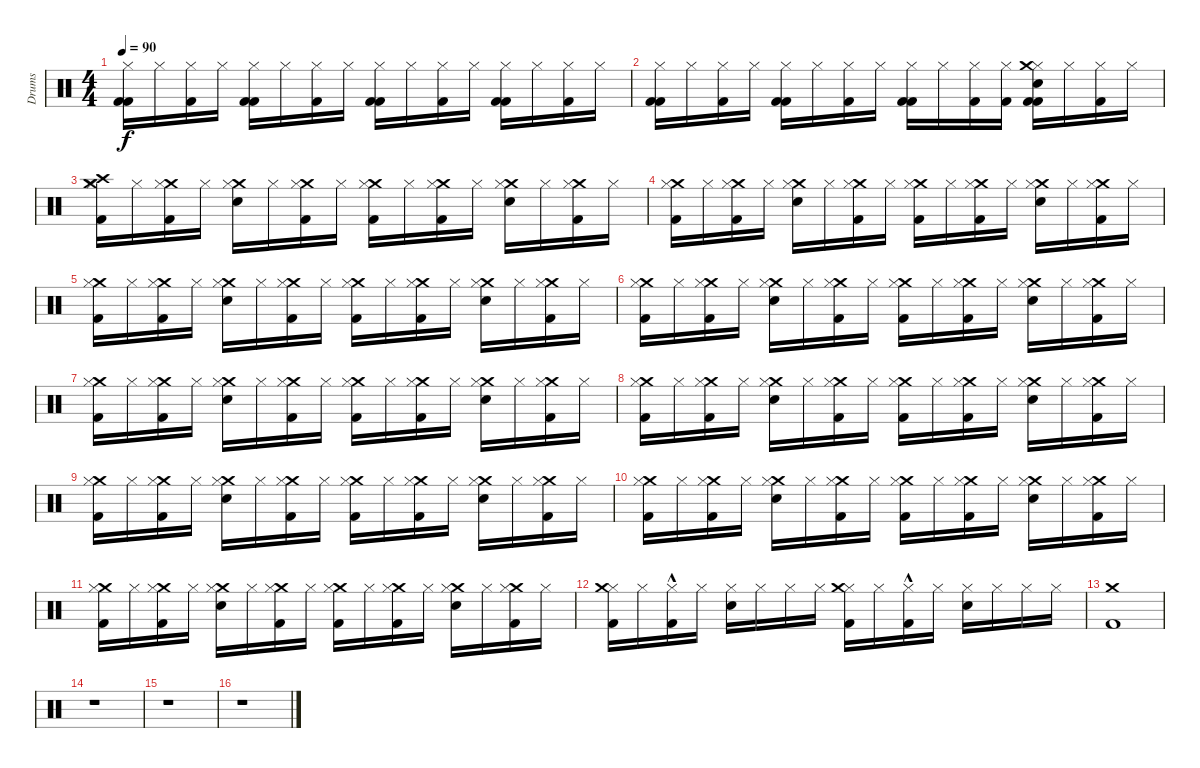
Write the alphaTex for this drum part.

\track ("Drums" "Drums") {instrument percussion}
\staff {score}
\articulation defaults
\ts (4 4)
\tempo 90
\clef neutral
\ks c
("Kick (hit) 2" "Kick (hit) 2" "Hi-Hat (closed)").16{dy f} "Hi-Hat (closed)".16 ("Kick (hit) 2" "Hi-Hat (closed)").16 "Hi-Hat (closed)".16 ("Kick (hit) 2" "Kick (hit) 2" "Hi-Hat (closed)").16 "Hi-Hat (closed)".16 ("Kick (hit) 2" "Hi-Hat (closed)").16 "Hi-Hat (closed)".16 ("Kick (hit) 2" "Kick (hit) 2" "Hi-Hat (closed)").16 "Hi-Hat (closed)".16 ("Kick (hit) 2" "Hi-Hat (closed)").16 "Hi-Hat (closed)".16 ("Kick (hit) 2" "Kick (hit) 2" "Hi-Hat (closed)").16 "Hi-Hat (closed)".16 ("Kick (hit) 2" "Hi-Hat (closed)").16 "Hi-Hat (closed)".16 |
("Kick (hit) 2" "Kick (hit) 2" "Hi-Hat (closed)").16 "Hi-Hat (closed)".16 ("Kick (hit) 2" "Hi-Hat (closed)").16 "Hi-Hat (closed)".16 ("Kick (hit) 2" "Kick (hit) 2" "Hi-Hat (closed)").16 "Hi-Hat (closed)".16 ("Kick (hit) 2" "Hi-Hat (closed)").16 "Hi-Hat (closed)".16 ("Kick (hit) 2" "Kick (hit) 2" "Hi-Hat (closed)").16 "Hi-Hat (closed)".16 ("Kick (hit) 2" "Hi-Hat (closed)").16 ("Hi-Hat (closed)" "Kick (hit) 2").16 ("Kick (hit) 2" "Hi-Hat (closed)" "Kick (hit) 2" "Snare (hit) 2" "Crash medium (hit)").16 "Hi-Hat (closed)".16 ("Hi-Hat (closed)" "Kick (hit) 2").16 "Hi-Hat (closed)".16 |
("Crash medium (hit)" "Kick (hit) 2" "Crash high (hit)" "Hi-Hat (closed)").16 "Hi-Hat (closed)".16 ("Crash medium (hit)" "Kick (hit) 2" "Hi-Hat (closed)").16 "Hi-Hat (closed)".16 ("Crash medium (hit)" "Snare (hit) 2" "Hi-Hat (closed)").16 "Hi-Hat (closed)".16 ("Crash medium (hit)" "Kick (hit) 2" "Hi-Hat (closed)").16 "Hi-Hat (closed)".16 ("Crash medium (hit)" "Kick (hit) 2" "Hi-Hat (closed)").16 "Hi-Hat (closed)".16 ("Crash medium (hit)" "Kick (hit) 2" "Hi-Hat (closed)").16 "Hi-Hat (closed)".16 ("Crash medium (hit)" "Snare (hit) 2" "Hi-Hat (closed)").16 "Hi-Hat (closed)".16 ("Crash medium (hit)" "Kick (hit) 2" "Hi-Hat (closed)").16 "Hi-Hat (closed)".16 |
("Crash medium (hit)" "Kick (hit) 2" "Hi-Hat (closed)").16 "Hi-Hat (closed)".16 ("Crash medium (hit)" "Kick (hit) 2" "Hi-Hat (closed)").16 "Hi-Hat (closed)".16 ("Crash medium (hit)" "Snare (hit) 2" "Hi-Hat (closed)").16 "Hi-Hat (closed)".16 ("Crash medium (hit)" "Kick (hit) 2" "Hi-Hat (closed)").16 "Hi-Hat (closed)".16 ("Crash medium (hit)" "Kick (hit) 2" "Hi-Hat (closed)").16 "Hi-Hat (closed)".16 ("Crash medium (hit)" "Kick (hit) 2" "Hi-Hat (closed)").16 "Hi-Hat (closed)".16 ("Crash medium (hit)" "Snare (hit) 2" "Hi-Hat (closed)").16 "Hi-Hat (closed)".16 ("Crash medium (hit)" "Kick (hit) 2" "Hi-Hat (closed)").16 "Hi-Hat (closed)".16 |
("Crash medium (hit)" "Kick (hit) 2" "Hi-Hat (closed)").16 "Hi-Hat (closed)".16 ("Crash medium (hit)" "Kick (hit) 2" "Hi-Hat (closed)").16 "Hi-Hat (closed)".16 ("Crash medium (hit)" "Snare (hit) 2" "Hi-Hat (closed)").16 "Hi-Hat (closed)".16 ("Crash medium (hit)" "Kick (hit) 2" "Hi-Hat (closed)").16 "Hi-Hat (closed)".16 ("Crash medium (hit)" "Kick (hit) 2" "Hi-Hat (closed)").16 "Hi-Hat (closed)".16 ("Crash medium (hit)" "Kick (hit) 2" "Hi-Hat (closed)").16 "Hi-Hat (closed)".16 ("Crash medium (hit)" "Snare (hit) 2" "Hi-Hat (closed)").16 "Hi-Hat (closed)".16 ("Crash medium (hit)" "Kick (hit) 2" "Hi-Hat (closed)").16 "Hi-Hat (closed)".16 |
("Crash medium (hit)" "Kick (hit) 2" "Hi-Hat (closed)").16 "Hi-Hat (closed)".16 ("Crash medium (hit)" "Kick (hit) 2" "Hi-Hat (closed)").16 "Hi-Hat (closed)".16 ("Crash medium (hit)" "Snare (hit) 2" "Hi-Hat (closed)").16 "Hi-Hat (closed)".16 ("Crash medium (hit)" "Kick (hit) 2" "Hi-Hat (closed)").16 "Hi-Hat (closed)".16 ("Crash medium (hit)" "Kick (hit) 2" "Hi-Hat (closed)").16 "Hi-Hat (closed)".16 ("Crash medium (hit)" "Kick (hit) 2" "Hi-Hat (closed)").16 "Hi-Hat (closed)".16 ("Crash medium (hit)" "Snare (hit) 2" "Hi-Hat (closed)").16 "Hi-Hat (closed)".16 ("Crash medium (hit)" "Kick (hit) 2" "Hi-Hat (closed)").16 "Hi-Hat (closed)".16 |
("Crash medium (hit)" "Kick (hit) 2" "Hi-Hat (closed)").16 "Hi-Hat (closed)".16 ("Crash medium (hit)" "Kick (hit) 2" "Hi-Hat (closed)").16 "Hi-Hat (closed)".16 ("Crash medium (hit)" "Snare (hit) 2" "Hi-Hat (closed)").16 "Hi-Hat (closed)".16 ("Crash medium (hit)" "Kick (hit) 2" "Hi-Hat (closed)").16 "Hi-Hat (closed)".16 ("Crash medium (hit)" "Kick (hit) 2" "Hi-Hat (closed)").16 "Hi-Hat (closed)".16 ("Crash medium (hit)" "Kick (hit) 2" "Hi-Hat (closed)").16 "Hi-Hat (closed)".16 ("Crash medium (hit)" "Snare (hit) 2" "Hi-Hat (closed)").16 "Hi-Hat (closed)".16 ("Crash medium (hit)" "Kick (hit) 2" "Hi-Hat (closed)").16 "Hi-Hat (closed)".16 |
("Crash medium (hit)" "Kick (hit) 2" "Hi-Hat (closed)").16 "Hi-Hat (closed)".16 ("Crash medium (hit)" "Kick (hit) 2" "Hi-Hat (closed)").16 "Hi-Hat (closed)".16 ("Crash medium (hit)" "Snare (hit) 2" "Hi-Hat (closed)").16 "Hi-Hat (closed)".16 ("Crash medium (hit)" "Kick (hit) 2" "Hi-Hat (closed)").16 "Hi-Hat (closed)".16 ("Crash medium (hit)" "Kick (hit) 2" "Hi-Hat (closed)").16 "Hi-Hat (closed)".16 ("Crash medium (hit)" "Kick (hit) 2" "Hi-Hat (closed)").16 "Hi-Hat (closed)".16 ("Crash medium (hit)" "Snare (hit) 2" "Hi-Hat (closed)").16 "Hi-Hat (closed)".16 ("Crash medium (hit)" "Kick (hit) 2" "Hi-Hat (closed)").16 "Hi-Hat (closed)".16 |
("Crash medium (hit)" "Kick (hit) 2" "Hi-Hat (closed)").16 "Hi-Hat (closed)".16 ("Crash medium (hit)" "Kick (hit) 2" "Hi-Hat (closed)").16 "Hi-Hat (closed)".16 ("Crash medium (hit)" "Snare (hit) 2" "Hi-Hat (closed)").16 "Hi-Hat (closed)".16 ("Crash medium (hit)" "Kick (hit) 2" "Hi-Hat (closed)").16 "Hi-Hat (closed)".16 ("Crash medium (hit)" "Kick (hit) 2" "Hi-Hat (closed)").16 "Hi-Hat (closed)".16 ("Crash medium (hit)" "Kick (hit) 2" "Hi-Hat (closed)").16 "Hi-Hat (closed)".16 ("Crash medium (hit)" "Snare (hit) 2" "Hi-Hat (closed)").16 "Hi-Hat (closed)".16 ("Crash medium (hit)" "Kick (hit) 2" "Hi-Hat (closed)").16 "Hi-Hat (closed)".16 |
("Crash medium (hit)" "Kick (hit) 2" "Hi-Hat (closed)").16 "Hi-Hat (closed)".16 ("Crash medium (hit)" "Kick (hit) 2" "Hi-Hat (closed)").16 "Hi-Hat (closed)".16 ("Crash medium (hit)" "Snare (hit) 2" "Hi-Hat (closed)").16 "Hi-Hat (closed)".16 ("Crash medium (hit)" "Kick (hit) 2" "Hi-Hat (closed)").16 "Hi-Hat (closed)".16 ("Crash medium (hit)" "Kick (hit) 2" "Hi-Hat (closed)").16 "Hi-Hat (closed)".16 ("Crash medium (hit)" "Kick (hit) 2" "Hi-Hat (closed)").16 "Hi-Hat (closed)".16 ("Crash medium (hit)" "Snare (hit) 2" "Hi-Hat (closed)").16 "Hi-Hat (closed)".16 ("Crash medium (hit)" "Kick (hit) 2" "Hi-Hat (closed)").16 "Hi-Hat (closed)".16 |
("Crash medium (hit)" "Kick (hit) 2" "Hi-Hat (closed)").16 "Hi-Hat (closed)".16 ("Crash medium (hit)" "Kick (hit) 2" "Hi-Hat (closed)").16 "Hi-Hat (closed)".16 ("Crash medium (hit)" "Snare (hit) 2" "Hi-Hat (closed)").16 "Hi-Hat (closed)".16 ("Crash medium (hit)" "Kick (hit) 2" "Hi-Hat (closed)").16 "Hi-Hat (closed)".16 ("Crash medium (hit)" "Kick (hit) 2" "Hi-Hat (closed)").16 "Hi-Hat (closed)".16 ("Crash medium (hit)" "Kick (hit) 2" "Hi-Hat (closed)").16 "Hi-Hat (closed)".16 ("Crash medium (hit)" "Snare (hit) 2" "Hi-Hat (closed)").16 "Hi-Hat (closed)".16 ("Crash medium (hit)" "Hi-Hat (closed)" "Kick (hit) 2").16 "Hi-Hat (closed)".16 |
("Hi-Hat (closed)" "Kick (hit) 2" "Crash medium (hit)").16 "Hi-Hat (closed)".16 ("Hi-Hat (closed)" "Kick (hit) 2"{hac}).16 "Hi-Hat (closed)".16 ("Snare (hit) 2" "Hi-Hat (closed)").16 "Hi-Hat (closed)".16 "Hi-Hat (closed)".16 "Hi-Hat (closed)".16 ("Kick (hit) 2" "Hi-Hat (closed)" "Crash medium (hit)").16 "Hi-Hat (closed)".16 ("Hi-Hat (closed)" "Kick (hit) 2"{hac}).16 "Hi-Hat (closed)".16 ("Snare (hit) 2" "Hi-Hat (closed)").16 "Hi-Hat (closed)".16 "Hi-Hat (closed)".16 "Hi-Hat (closed)".16 |
("Kick (hit) 2" "Crash medium (hit)").1 |
r.1 |
r.1 |
r.1
